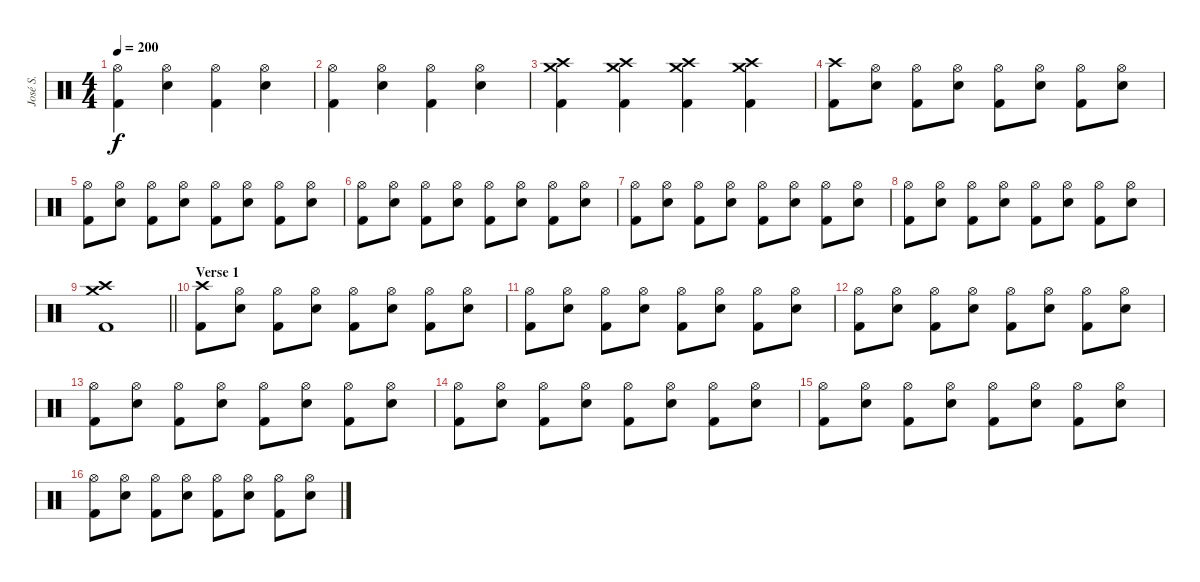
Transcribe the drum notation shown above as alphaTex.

\track ("José S." "José S.") {instrument percussion}
\staff {score}
\articulation defaults
\ts (4 4)
\tempo 200
\clef neutral
\ks c
("Hi-Hat (open)" "Kick (hit) 2").4{dy f} ("Hi-Hat (open)" "Electric Snare (hit)").4 ("Hi-Hat (open)" "Kick (hit) 2").4 ("Hi-Hat (open)" "Electric Snare (hit)").4 |
("Hi-Hat (open)" "Kick (hit) 2").4 ("Hi-Hat (open)" "Electric Snare (hit)").4 ("Hi-Hat (open)" "Kick (hit) 2").4 ("Hi-Hat (open)" "Electric Snare (hit)").4 |
("Crash high (hit)" "Crash medium (hit)" "Kick (hit) 2").4 ("Crash high (hit)" "Crash medium (hit)" "Kick (hit) 2").4 ("Crash high (hit)" "Crash medium (hit)" "Kick (hit) 2").4 ("Crash high (hit)" "Crash medium (hit)" "Kick (hit) 2").4 |
("Crash high (hit)" "Kick (hit) 2").8 ("Hi-Hat (open)" "Electric Snare (hit)").8 ("Hi-Hat (open)" "Kick (hit) 2").8 ("Hi-Hat (open)" "Electric Snare (hit)").8 ("Hi-Hat (open)" "Kick (hit) 2").8 ("Hi-Hat (open)" "Electric Snare (hit)").8 ("Hi-Hat (open)" "Kick (hit) 2").8 ("Hi-Hat (open)" "Electric Snare (hit)").8 |
("Hi-Hat (open)" "Kick (hit) 2").8 ("Hi-Hat (open)" "Electric Snare (hit)").8 ("Hi-Hat (open)" "Kick (hit) 2").8 ("Hi-Hat (open)" "Electric Snare (hit)").8 ("Hi-Hat (open)" "Kick (hit) 2").8 ("Hi-Hat (open)" "Electric Snare (hit)").8 ("Hi-Hat (open)" "Kick (hit) 2").8 ("Hi-Hat (open)" "Electric Snare (hit)").8 |
("Hi-Hat (open)" "Kick (hit) 2").8 ("Hi-Hat (open)" "Electric Snare (hit)").8 ("Hi-Hat (open)" "Kick (hit) 2").8 ("Hi-Hat (open)" "Electric Snare (hit)").8 ("Hi-Hat (open)" "Kick (hit) 2").8 ("Hi-Hat (open)" "Electric Snare (hit)").8 ("Hi-Hat (open)" "Kick (hit) 2").8 ("Hi-Hat (open)" "Electric Snare (hit)").8 |
("Hi-Hat (open)" "Kick (hit) 2").8 ("Hi-Hat (open)" "Electric Snare (hit)").8 ("Hi-Hat (open)" "Kick (hit) 2").8 ("Hi-Hat (open)" "Electric Snare (hit)").8 ("Hi-Hat (open)" "Kick (hit) 2").8 ("Hi-Hat (open)" "Electric Snare (hit)").8 ("Hi-Hat (open)" "Kick (hit) 2").8 ("Hi-Hat (open)" "Electric Snare (hit)").8 |
("Hi-Hat (open)" "Kick (hit) 2").8 ("Hi-Hat (open)" "Electric Snare (hit)").8 ("Hi-Hat (open)" "Kick (hit) 2").8 ("Hi-Hat (open)" "Electric Snare (hit)").8 ("Hi-Hat (open)" "Kick (hit) 2").8 ("Hi-Hat (open)" "Electric Snare (hit)").8 ("Hi-Hat (open)" "Kick (hit) 2").8 ("Hi-Hat (open)" "Electric Snare (hit)").8 |
\barLineRight lightlight
("Crash high (hit)" "Crash medium (hit)" "Kick (hit) 2").1 |
\section ("" "Verse 1")
("Crash high (hit)" "Kick (hit) 2").8 ("Hi-Hat (open)" "Electric Snare (hit)").8 ("Hi-Hat (open)" "Kick (hit) 2").8 ("Hi-Hat (open)" "Electric Snare (hit)").8 ("Hi-Hat (open)" "Kick (hit) 2").8 ("Hi-Hat (open)" "Electric Snare (hit)").8 ("Hi-Hat (open)" "Kick (hit) 2").8 ("Hi-Hat (open)" "Electric Snare (hit)").8 |
("Hi-Hat (open)" "Kick (hit) 2").8 ("Hi-Hat (open)" "Electric Snare (hit)").8 ("Hi-Hat (open)" "Kick (hit) 2").8 ("Hi-Hat (open)" "Electric Snare (hit)").8 ("Hi-Hat (open)" "Kick (hit) 2").8 ("Hi-Hat (open)" "Electric Snare (hit)").8 ("Hi-Hat (open)" "Kick (hit) 2").8 ("Hi-Hat (open)" "Electric Snare (hit)").8 |
("Hi-Hat (open)" "Kick (hit) 2").8 ("Hi-Hat (open)" "Electric Snare (hit)").8 ("Hi-Hat (open)" "Kick (hit) 2").8 ("Hi-Hat (open)" "Electric Snare (hit)").8 ("Hi-Hat (open)" "Kick (hit) 2").8 ("Hi-Hat (open)" "Electric Snare (hit)").8 ("Hi-Hat (open)" "Kick (hit) 2").8 ("Hi-Hat (open)" "Electric Snare (hit)").8 |
("Hi-Hat (open)" "Kick (hit) 2").8 ("Hi-Hat (open)" "Electric Snare (hit)").8 ("Hi-Hat (open)" "Kick (hit) 2").8 ("Hi-Hat (open)" "Electric Snare (hit)").8 ("Hi-Hat (open)" "Kick (hit) 2").8 ("Hi-Hat (open)" "Electric Snare (hit)").8 ("Hi-Hat (open)" "Kick (hit) 2").8 ("Hi-Hat (open)" "Electric Snare (hit)").8 |
("Hi-Hat (open)" "Kick (hit) 2").8 ("Hi-Hat (open)" "Electric Snare (hit)").8 ("Hi-Hat (open)" "Kick (hit) 2").8 ("Hi-Hat (open)" "Electric Snare (hit)").8 ("Hi-Hat (open)" "Kick (hit) 2").8 ("Hi-Hat (open)" "Electric Snare (hit)").8 ("Hi-Hat (open)" "Kick (hit) 2").8 ("Hi-Hat (open)" "Electric Snare (hit)").8 |
("Hi-Hat (open)" "Kick (hit) 2").8 ("Hi-Hat (open)" "Electric Snare (hit)").8 ("Hi-Hat (open)" "Kick (hit) 2").8 ("Hi-Hat (open)" "Electric Snare (hit)").8 ("Hi-Hat (open)" "Kick (hit) 2").8 ("Hi-Hat (open)" "Electric Snare (hit)").8 ("Hi-Hat (open)" "Kick (hit) 2").8 ("Hi-Hat (open)" "Electric Snare (hit)").8 |
("Hi-Hat (open)" "Kick (hit) 2").8 ("Hi-Hat (open)" "Electric Snare (hit)").8 ("Hi-Hat (open)" "Kick (hit) 2").8 ("Hi-Hat (open)" "Electric Snare (hit)").8 ("Hi-Hat (open)" "Kick (hit) 2").8 ("Hi-Hat (open)" "Electric Snare (hit)").8 ("Hi-Hat (open)" "Kick (hit) 2").8 ("Hi-Hat (open)" "Electric Snare (hit)").8
